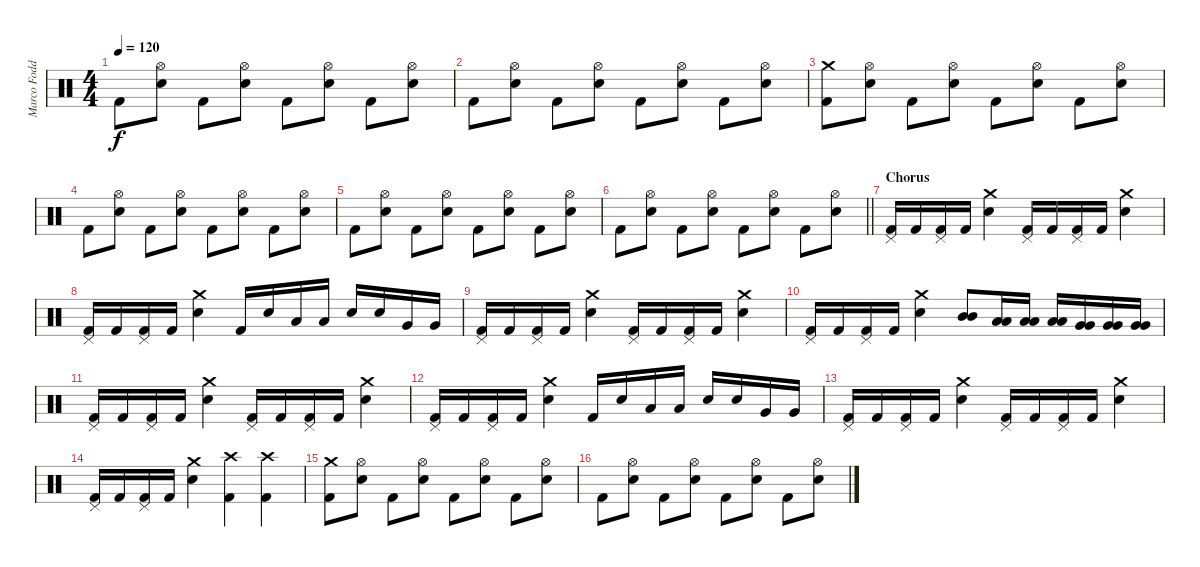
\track ("Marco Foddis " "Marco Fodd") {instrument percussion}
\staff {score}
\articulation defaults
\ts (4 4)
\tempo 120
\clef neutral
\ks c "Kick (hit) 2".8{dy f}
("Hi-Hat (open)" "Electric Snare (hit)").8 "Kick (hit) 2".8 ("Hi-Hat (open)" "Electric Snare (hit)").8 "Kick (hit) 2".8 ("Hi-Hat (open)" "Electric Snare (hit)").8 "Kick (hit) 2".8 ("Hi-Hat (open)" "Electric Snare (hit)").8 |
"Kick (hit) 2".8 ("Hi-Hat (open)" "Electric Snare (hit)").8 "Kick (hit) 2".8 ("Hi-Hat (open)" "Electric Snare (hit)").8 "Kick (hit) 2".8 ("Hi-Hat (open)" "Electric Snare (hit)").8 "Kick (hit) 2".8 ("Hi-Hat (open)" "Electric Snare (hit)").8 |
("Crash medium (hit)" "Kick (hit) 2").8 ("Hi-Hat (open)" "Electric Snare (hit)").8 "Kick (hit) 2".8 ("Hi-Hat (open)" "Electric Snare (hit)").8 "Kick (hit) 2".8 ("Hi-Hat (open)" "Electric Snare (hit)").8 "Kick (hit) 2".8 ("Hi-Hat (open)" "Electric Snare (hit)").8 |
"Kick (hit) 2".8 ("Hi-Hat (open)" "Electric Snare (hit)").8 "Kick (hit) 2".8 ("Hi-Hat (open)" "Electric Snare (hit)").8 "Kick (hit) 2".8 ("Hi-Hat (open)" "Electric Snare (hit)").8 "Kick (hit) 2".8 ("Hi-Hat (open)" "Electric Snare (hit)").8 |
"Kick (hit) 2".8 ("Hi-Hat (open)" "Electric Snare (hit)").8 "Kick (hit) 2".8 ("Hi-Hat (open)" "Electric Snare (hit)").8 "Kick (hit) 2".8 ("Hi-Hat (open)" "Electric Snare (hit)").8 "Kick (hit) 2".8 ("Hi-Hat (open)" "Electric Snare (hit)").8 |
\barLineRight lightlight "Kick (hit) 2".8
("Hi-Hat (open)" "Electric Snare (hit)").8 "Kick (hit) 2".8 ("Hi-Hat (open)" "Electric Snare (hit)").8 "Kick (hit) 2".8 ("Hi-Hat (open)" "Electric Snare (hit)").8 "Kick (hit) 2".8 ("Hi-Hat (open)" "Electric Snare (hit)").8 |
\section ("" "Chorus")
("Pedal Hi-Hat (hit)" "Kick (hit) 2").16 "Kick (hit) 2".16 ("Pedal Hi-Hat (hit)" "Kick (hit) 2").16 "Kick (hit) 2".16 ("Crash medium (hit)" "Electric Snare (hit)").4 ("Pedal Hi-Hat (hit)" "Kick (hit) 2").16 "Kick (hit) 2".16 ("Pedal Hi-Hat (hit)" "Kick (hit) 2").16 "Kick (hit) 2".16 ("Crash medium (hit)" "Electric Snare (hit)").4 |
("Pedal Hi-Hat (hit)" "Kick (hit) 2").16 "Kick (hit) 2".16 ("Pedal Hi-Hat (hit)" "Kick (hit) 2").16 "Kick (hit) 2".16 ("Crash medium (hit)" "Electric Snare (hit)").4 "Kick (hit) 2".16 "Electric Snare (hit)".16 "Low Tom (hit)".16 "Low Tom (hit)".16 "Electric Snare (hit)".16 "Electric Snare (hit)".16 "Very Low Tom (hit)".16 "Very Low Tom (hit)".16 |
("Pedal Hi-Hat (hit)" "Kick (hit) 2").16 "Kick (hit) 2".16 ("Pedal Hi-Hat (hit)" "Kick (hit) 2").16 "Kick (hit) 2".16 ("Crash medium (hit)" "Electric Snare (hit)").4 ("Pedal Hi-Hat (hit)" "Kick (hit) 2").16 "Kick (hit) 2".16 ("Pedal Hi-Hat (hit)" "Kick (hit) 2").16 "Kick (hit) 2".16 ("Crash medium (hit)" "Electric Snare (hit)").4 |
("Pedal Hi-Hat (hit)" "Kick (hit) 2").16 "Kick (hit) 2".16 ("Pedal Hi-Hat (hit)" "Kick (hit) 2").16 "Kick (hit) 2".16 ("Crash medium (hit)" "Electric Snare (hit)").4 ("Mid Tom (hit)" "Mid Tom (hit)").8 ("Low Tom (hit)" "Low Tom (hit)").16 ("Low Tom (hit)" "Low Tom (hit)").16 ("Low Tom (hit)" "Low Tom (hit)").16 ("Very Low Tom (hit)" "Very Low Tom (hit)").16 ("Very Low Tom (hit)" "Very Low Tom (hit)").16 ("Very Low Tom (hit)" "Very Low Tom (hit)").16 |
("Pedal Hi-Hat (hit)" "Kick (hit) 2").16 "Kick (hit) 2".16 ("Pedal Hi-Hat (hit)" "Kick (hit) 2").16 "Kick (hit) 2".16 ("Crash medium (hit)" "Electric Snare (hit)").4 ("Pedal Hi-Hat (hit)" "Kick (hit) 2").16 "Kick (hit) 2".16 ("Pedal Hi-Hat (hit)" "Kick (hit) 2").16 "Kick (hit) 2".16 ("Crash medium (hit)" "Electric Snare (hit)").4 |
("Pedal Hi-Hat (hit)" "Kick (hit) 2").16 "Kick (hit) 2".16 ("Pedal Hi-Hat (hit)" "Kick (hit) 2").16 "Kick (hit) 2".16 ("Crash medium (hit)" "Electric Snare (hit)").4 "Kick (hit) 2".16 "Electric Snare (hit)".16 "Low Tom (hit)".16 "Low Tom (hit)".16 "Electric Snare (hit)".16 "Electric Snare (hit)".16 "Very Low Tom (hit)".16 "Very Low Tom (hit)".16 |
("Pedal Hi-Hat (hit)" "Kick (hit) 2").16 "Kick (hit) 2".16 ("Pedal Hi-Hat (hit)" "Kick (hit) 2").16 "Kick (hit) 2".16 ("Crash medium (hit)" "Electric Snare (hit)").4 ("Pedal Hi-Hat (hit)" "Kick (hit) 2").16 "Kick (hit) 2".16 ("Pedal Hi-Hat (hit)" "Kick (hit) 2").16 "Kick (hit) 2".16 ("Crash medium (hit)" "Electric Snare (hit)").4 |
("Pedal Hi-Hat (hit)" "Kick (hit) 2").16 "Kick (hit) 2".16 ("Pedal Hi-Hat (hit)" "Kick (hit) 2").16 "Kick (hit) 2".16 ("Crash medium (hit)" "Electric Snare (hit)").4 ("Crash high (hit)" "Kick (hit) 2").4 ("Crash high (hit)" "Kick (hit) 2").4 |
("Crash medium (hit)" "Kick (hit) 2").8 ("Hi-Hat (open)" "Electric Snare (hit)").8 "Kick (hit) 2".8 ("Hi-Hat (open)" "Electric Snare (hit)").8 "Kick (hit) 2".8 ("Hi-Hat (open)" "Electric Snare (hit)").8 "Kick (hit) 2".8 ("Hi-Hat (open)" "Electric Snare (hit)").8 |
"Kick (hit) 2".8 ("Hi-Hat (open)" "Electric Snare (hit)").8 "Kick (hit) 2".8 ("Hi-Hat (open)" "Electric Snare (hit)").8 "Kick (hit) 2".8 ("Hi-Hat (open)" "Electric Snare (hit)").8 "Kick (hit) 2".8 ("Hi-Hat (open)" "Electric Snare (hit)").8
